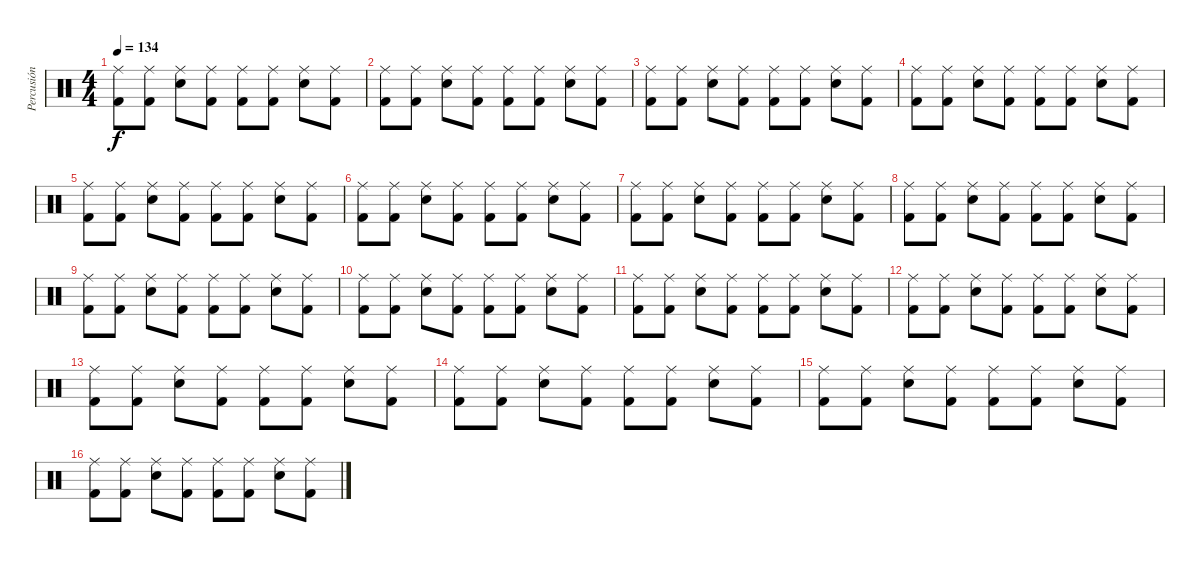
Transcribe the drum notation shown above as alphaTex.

\track ("Percusión" "Percusión") {instrument percussion}
\staff {score}
\articulation defaults
\ts (4 4)
\tempo 134
\clef neutral
\ks c
("Ride (middle)" "Kick (hit) 2").8{dy f} ("Ride (middle)" "Kick (hit) 2").8 ("Ride (middle)" "Snare (hit) 2").8 ("Ride (middle)" "Kick (hit) 2").8 ("Ride (middle)" "Kick (hit) 2").8 ("Ride (middle)" "Kick (hit) 2").8 ("Ride (middle)" "Snare (hit) 2").8 ("Ride (middle)" "Kick (hit) 2").8 |
("Ride (middle)" "Kick (hit) 2").8 ("Ride (middle)" "Kick (hit) 2").8 ("Ride (middle)" "Snare (hit) 2").8 ("Ride (middle)" "Kick (hit) 2").8 ("Ride (middle)" "Kick (hit) 2").8 ("Ride (middle)" "Kick (hit) 2").8 ("Ride (middle)" "Snare (hit) 2").8 ("Ride (middle)" "Kick (hit) 2").8 |
("Ride (middle)" "Kick (hit) 2").8 ("Ride (middle)" "Kick (hit) 2").8 ("Ride (middle)" "Snare (hit) 2").8 ("Ride (middle)" "Kick (hit) 2").8 ("Ride (middle)" "Kick (hit) 2").8 ("Ride (middle)" "Kick (hit) 2").8 ("Ride (middle)" "Snare (hit) 2").8 ("Ride (middle)" "Kick (hit) 2").8 |
("Ride (middle)" "Kick (hit) 2").8 ("Ride (middle)" "Kick (hit) 2").8 ("Ride (middle)" "Snare (hit) 2").8 ("Ride (middle)" "Kick (hit) 2").8 ("Ride (middle)" "Kick (hit) 2").8 ("Ride (middle)" "Kick (hit) 2").8 ("Ride (middle)" "Snare (hit) 2").8 ("Ride (middle)" "Kick (hit) 2").8 |
("Ride (middle)" "Kick (hit) 2").8 ("Ride (middle)" "Kick (hit) 2").8 ("Ride (middle)" "Snare (hit) 2").8 ("Ride (middle)" "Kick (hit) 2").8 ("Ride (middle)" "Kick (hit) 2").8 ("Ride (middle)" "Kick (hit) 2").8 ("Ride (middle)" "Snare (hit) 2").8 ("Ride (middle)" "Kick (hit) 2").8 |
("Ride (middle)" "Kick (hit) 2").8 ("Ride (middle)" "Kick (hit) 2").8 ("Ride (middle)" "Snare (hit) 2").8 ("Ride (middle)" "Kick (hit) 2").8 ("Ride (middle)" "Kick (hit) 2").8 ("Ride (middle)" "Kick (hit) 2").8 ("Ride (middle)" "Snare (hit) 2").8 ("Ride (middle)" "Kick (hit) 2").8 |
("Ride (middle)" "Kick (hit) 2").8 ("Ride (middle)" "Kick (hit) 2").8 ("Ride (middle)" "Snare (hit) 2").8 ("Ride (middle)" "Kick (hit) 2").8 ("Ride (middle)" "Kick (hit) 2").8 ("Ride (middle)" "Kick (hit) 2").8 ("Ride (middle)" "Snare (hit) 2").8 ("Ride (middle)" "Kick (hit) 2").8 |
("Ride (middle)" "Kick (hit) 2").8 ("Ride (middle)" "Kick (hit) 2").8 ("Ride (middle)" "Snare (hit) 2").8 ("Ride (middle)" "Kick (hit) 2").8 ("Ride (middle)" "Kick (hit) 2").8 ("Ride (middle)" "Kick (hit) 2").8 ("Ride (middle)" "Snare (hit) 2").8 ("Ride (middle)" "Kick (hit) 2").8 |
("Ride (middle)" "Kick (hit) 2").8 ("Ride (middle)" "Kick (hit) 2").8 ("Ride (middle)" "Snare (hit) 2").8 ("Ride (middle)" "Kick (hit) 2").8 ("Ride (middle)" "Kick (hit) 2").8 ("Ride (middle)" "Kick (hit) 2").8 ("Ride (middle)" "Snare (hit) 2").8 ("Ride (middle)" "Kick (hit) 2").8 |
("Ride (middle)" "Kick (hit) 2").8 ("Ride (middle)" "Kick (hit) 2").8 ("Ride (middle)" "Snare (hit) 2").8 ("Ride (middle)" "Kick (hit) 2").8 ("Ride (middle)" "Kick (hit) 2").8 ("Ride (middle)" "Kick (hit) 2").8 ("Ride (middle)" "Snare (hit) 2").8 ("Ride (middle)" "Kick (hit) 2").8 |
("Ride (middle)" "Kick (hit) 2").8 ("Ride (middle)" "Kick (hit) 2").8 ("Ride (middle)" "Snare (hit) 2").8 ("Ride (middle)" "Kick (hit) 2").8 ("Ride (middle)" "Kick (hit) 2").8 ("Ride (middle)" "Kick (hit) 2").8 ("Ride (middle)" "Snare (hit) 2").8 ("Ride (middle)" "Kick (hit) 2").8 |
("Ride (middle)" "Kick (hit) 2").8 ("Ride (middle)" "Kick (hit) 2").8 ("Ride (middle)" "Snare (hit) 2").8 ("Ride (middle)" "Kick (hit) 2").8 ("Ride (middle)" "Kick (hit) 2").8 ("Ride (middle)" "Kick (hit) 2").8 ("Ride (middle)" "Snare (hit) 2").8 ("Ride (middle)" "Kick (hit) 2").8 |
("Ride (middle)" "Kick (hit) 2").8 ("Ride (middle)" "Kick (hit) 2").8 ("Ride (middle)" "Snare (hit) 2").8 ("Ride (middle)" "Kick (hit) 2").8 ("Ride (middle)" "Kick (hit) 2").8 ("Ride (middle)" "Kick (hit) 2").8 ("Ride (middle)" "Snare (hit) 2").8 ("Ride (middle)" "Kick (hit) 2").8 |
("Ride (middle)" "Kick (hit) 2").8 ("Ride (middle)" "Kick (hit) 2").8 ("Ride (middle)" "Snare (hit) 2").8 ("Ride (middle)" "Kick (hit) 2").8 ("Ride (middle)" "Kick (hit) 2").8 ("Ride (middle)" "Kick (hit) 2").8 ("Ride (middle)" "Snare (hit) 2").8 ("Ride (middle)" "Kick (hit) 2").8 |
("Ride (middle)" "Kick (hit) 2").8 ("Ride (middle)" "Kick (hit) 2").8 ("Ride (middle)" "Snare (hit) 2").8 ("Ride (middle)" "Kick (hit) 2").8 ("Ride (middle)" "Kick (hit) 2").8 ("Ride (middle)" "Kick (hit) 2").8 ("Ride (middle)" "Snare (hit) 2").8 ("Ride (middle)" "Kick (hit) 2").8 |
("Ride (middle)" "Kick (hit) 2").8 ("Ride (middle)" "Kick (hit) 2").8 ("Ride (middle)" "Snare (hit) 2").8 ("Ride (middle)" "Kick (hit) 2").8 ("Ride (middle)" "Kick (hit) 2").8 ("Ride (middle)" "Kick (hit) 2").8 ("Ride (middle)" "Snare (hit) 2").8 ("Ride (middle)" "Kick (hit) 2").8
